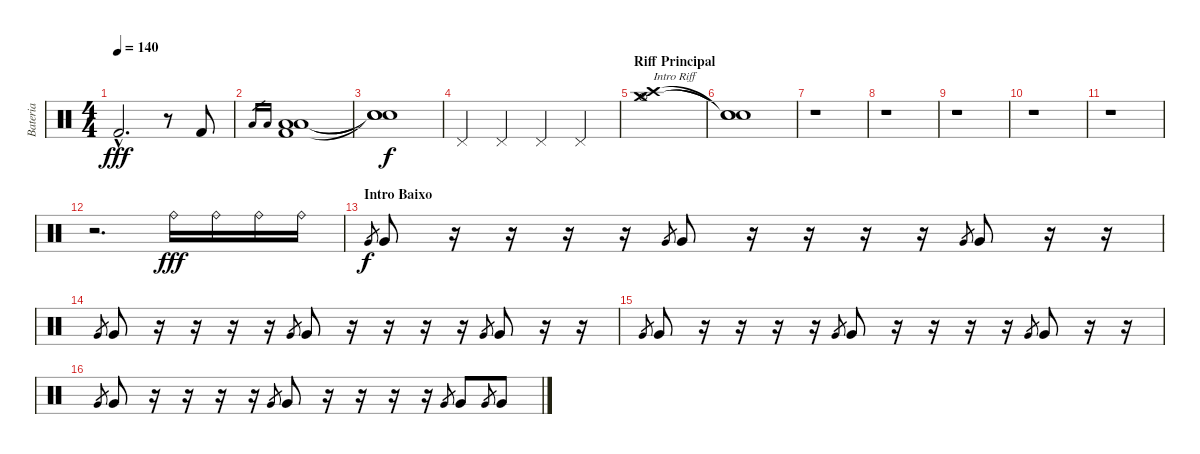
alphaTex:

\track ("Bateria" "Bateria") {instrument percussion}
\staff {score}
\articulation defaults
\ts (4 4)
\tempo 140
\clef neutral
\ks c "Kick (hit) 2"{hac}.2{d dy fff}
r.8 "Kick (hit) 2".8 |
"Low Floor Tom (hit)".16{gr} "Low Floor Tom (hit)".16{gr} ("Low Floor Tom (hit)" "Low Floor Tom (hit)" "Kick (hit) 2").1 |
("Snare (hit)"{t} "Snare (hit)"{t} "Snare (hit)"{t}).1{dy f} |
"Pedal Hi-Hat (hit)".4 "Pedal Hi-Hat (hit)".4 "Pedal Hi-Hat (hit)".4 "Pedal Hi-Hat (hit)".4 |
\section ("" "Riff Principal")
("Hi-Hat (open)" "Crash high (hit)" "Crash medium (hit)").1{txt "Intro Riff"} |
("Snare (hit)"{t} "Snare (hit)"{t} "Snare (hit)"{t}).1 |
r.1 |
r.1 |
r.1 |
r.1 |
r.1 |
r.2{d} "Ride (bell)".16{dy fff} "Ride (bell)".16 "Ride (bell)".16 "Ride (bell)".16 |
\section ("" "Intro Baixo")
"Very Low Tom (hit)".8{gr dy f} "Very Low Tom (hit)".8 r.16 r.16 r.16 r.16 "Very Low Tom (hit)".8{gr} "Very Low Tom (hit)".8 r.16 r.16 r.16 r.16 "Very Low Tom (hit)".8{gr} "Very Low Tom (hit)".8 r.16 r.16 |
"Very Low Tom (hit)".8{gr} "Very Low Tom (hit)".8 r.16 r.16 r.16 r.16 "Very Low Tom (hit)".8{gr} "Very Low Tom (hit)".8 r.16 r.16 r.16 r.16 "Very Low Tom (hit)".8{gr} "Very Low Tom (hit)".8 r.16 r.16 |
"Very Low Tom (hit)".8{gr} "Very Low Tom (hit)".8 r.16 r.16 r.16 r.16 "Very Low Tom (hit)".8{gr} "Very Low Tom (hit)".8 r.16 r.16 r.16 r.16 "Very Low Tom (hit)".8{gr} "Very Low Tom (hit)".8 r.16 r.16 |
"Very Low Tom (hit)".8{gr} "Very Low Tom (hit)".8 r.16 r.16 r.16 r.16 "Very Low Tom (hit)".8{gr} "Very Low Tom (hit)".8 r.16 r.16 r.16 r.16 "Very Low Tom (hit)".8{gr} "Very Low Tom (hit)".8 "Very Low Tom (hit)".8{gr} "Very Low Tom (hit)".8
